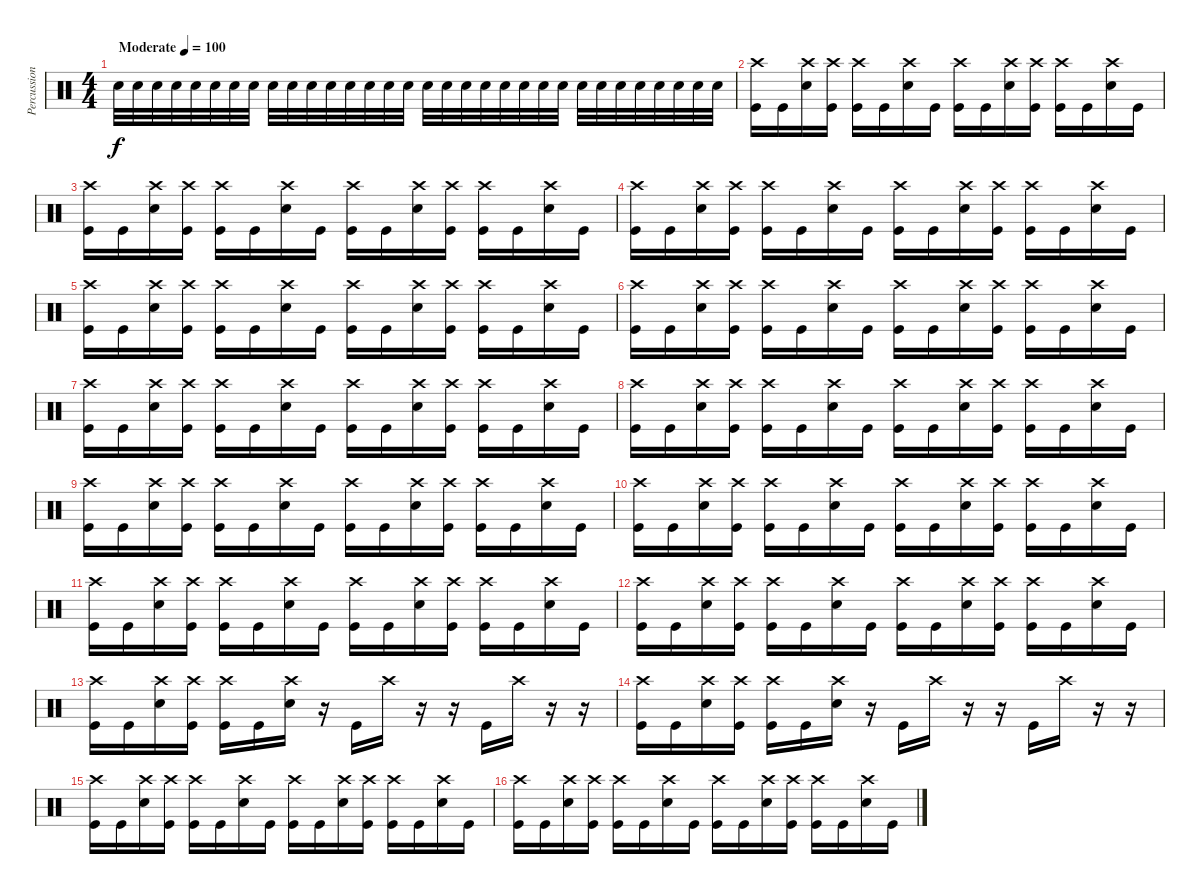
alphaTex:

\track ("Percussion" "Percussion") {instrument percussion}
\staff {score}
\articulation defaults
\ts (4 4)
\tempo (100 "Moderate")
\clef neutral
\ks c "Snare (hit) 2".32{dy f} "Snare (hit) 2".32 "Snare (hit) 2".32 "Snare (hit) 2".32 "Snare (hit) 2".32 "Snare (hit) 2".32 "Snare (hit) 2".32 "Snare (hit) 2".32 "Snare (hit) 2".32 "Snare (hit) 2".32 "Snare (hit) 2".32 "Snare (hit) 2".32 "Snare (hit) 2".32 "Snare (hit) 2".32 "Snare (hit) 2".32 "Snare (hit) 2".32 "Snare (hit) 2".32 "Snare (hit) 2".32 "Snare (hit) 2".32 "Snare (hit) 2".32 "Snare (hit) 2".32 "Snare (hit) 2".32 "Snare (hit) 2".32 "Snare (hit) 2".32 "Snare (hit) 2".32 "Snare (hit) 2".32 "Snare (hit) 2".32 "Snare (hit) 2".32 "Snare (hit) 2".32 "Snare (hit) 2".32 "Snare (hit) 2".32 "Snare (hit) 2".32
|
("Crash high (hit)" "Kick (hit)").16 "Kick (hit)".16 ("Crash high (hit)" "Snare (hit) 2").16 ("Crash high (hit)" "Kick (hit)").16 ("Crash high (hit)" "Kick (hit)").16 "Kick (hit)".16 ("Crash high (hit)" "Snare (hit) 2").16 "Kick (hit)".16 ("Crash high (hit)" "Kick (hit)").16 "Kick (hit)".16 ("Crash high (hit)" "Snare (hit) 2").16 ("Crash high (hit)" "Kick (hit)").16 ("Crash high (hit)" "Kick (hit)").16 "Kick (hit)".16 ("Crash high (hit)" "Snare (hit) 2").16 "Kick (hit)".16 |
("Crash high (hit)" "Kick (hit)").16 "Kick (hit)".16 ("Crash high (hit)" "Snare (hit) 2").16 ("Crash high (hit)" "Kick (hit)").16 ("Crash high (hit)" "Kick (hit)").16 "Kick (hit)".16 ("Crash high (hit)" "Snare (hit) 2").16 "Kick (hit)".16 ("Crash high (hit)" "Kick (hit)").16 "Kick (hit)".16 ("Crash high (hit)" "Snare (hit) 2").16 ("Crash high (hit)" "Kick (hit)").16 ("Crash high (hit)" "Kick (hit)").16 "Kick (hit)".16 ("Crash high (hit)" "Snare (hit) 2").16 "Kick (hit)".16 |
("Crash high (hit)" "Kick (hit)").16 "Kick (hit)".16 ("Crash high (hit)" "Snare (hit) 2").16 ("Crash high (hit)" "Kick (hit)").16 ("Crash high (hit)" "Kick (hit)").16 "Kick (hit)".16 ("Crash high (hit)" "Snare (hit) 2").16 "Kick (hit)".16 ("Crash high (hit)" "Kick (hit)").16 "Kick (hit)".16 ("Crash high (hit)" "Snare (hit) 2").16 ("Crash high (hit)" "Kick (hit)").16 ("Crash high (hit)" "Kick (hit)").16 "Kick (hit)".16 ("Crash high (hit)" "Snare (hit) 2").16 "Kick (hit)".16 |
("Crash high (hit)" "Kick (hit)").16 "Kick (hit)".16 ("Crash high (hit)" "Snare (hit) 2").16 ("Crash high (hit)" "Kick (hit)").16 ("Crash high (hit)" "Kick (hit)").16 "Kick (hit)".16 ("Crash high (hit)" "Snare (hit) 2").16 "Kick (hit)".16 ("Crash high (hit)" "Kick (hit)").16 "Kick (hit)".16 ("Crash high (hit)" "Snare (hit) 2").16 ("Crash high (hit)" "Kick (hit)").16 ("Crash high (hit)" "Kick (hit)").16 "Kick (hit)".16 ("Crash high (hit)" "Snare (hit) 2").16 "Kick (hit)".16 |
("Crash high (hit)" "Kick (hit)").16 "Kick (hit)".16 ("Crash high (hit)" "Snare (hit) 2").16 ("Crash high (hit)" "Kick (hit)").16 ("Crash high (hit)" "Kick (hit)").16 "Kick (hit)".16 ("Crash high (hit)" "Snare (hit) 2").16 "Kick (hit)".16 ("Crash high (hit)" "Kick (hit)").16 "Kick (hit)".16 ("Crash high (hit)" "Snare (hit) 2").16 ("Crash high (hit)" "Kick (hit)").16 ("Crash high (hit)" "Kick (hit)").16 "Kick (hit)".16 ("Crash high (hit)" "Snare (hit) 2").16 "Kick (hit)".16 |
("Crash high (hit)" "Kick (hit)").16 "Kick (hit)".16 ("Crash high (hit)" "Snare (hit) 2").16 ("Crash high (hit)" "Kick (hit)").16 ("Crash high (hit)" "Kick (hit)").16 "Kick (hit)".16 ("Crash high (hit)" "Snare (hit) 2").16 "Kick (hit)".16 ("Crash high (hit)" "Kick (hit)").16 "Kick (hit)".16 ("Crash high (hit)" "Snare (hit) 2").16 ("Crash high (hit)" "Kick (hit)").16 ("Crash high (hit)" "Kick (hit)").16 "Kick (hit)".16 ("Crash high (hit)" "Snare (hit) 2").16 "Kick (hit)".16 |
("Crash high (hit)" "Kick (hit)").16 "Kick (hit)".16 ("Crash high (hit)" "Snare (hit) 2").16 ("Crash high (hit)" "Kick (hit)").16 ("Crash high (hit)" "Kick (hit)").16 "Kick (hit)".16 ("Crash high (hit)" "Snare (hit) 2").16 "Kick (hit)".16 ("Crash high (hit)" "Kick (hit)").16 "Kick (hit)".16 ("Crash high (hit)" "Snare (hit) 2").16 ("Crash high (hit)" "Kick (hit)").16 ("Crash high (hit)" "Kick (hit)").16 "Kick (hit)".16 ("Crash high (hit)" "Snare (hit) 2").16 "Kick (hit)".16 |
("Crash high (hit)" "Kick (hit)").16 "Kick (hit)".16 ("Crash high (hit)" "Snare (hit) 2").16 ("Crash high (hit)" "Kick (hit)").16 ("Crash high (hit)" "Kick (hit)").16 "Kick (hit)".16 ("Crash high (hit)" "Snare (hit) 2").16 "Kick (hit)".16 ("Crash high (hit)" "Kick (hit)").16 "Kick (hit)".16 ("Crash high (hit)" "Snare (hit) 2").16 ("Crash high (hit)" "Kick (hit)").16 ("Crash high (hit)" "Kick (hit)").16 "Kick (hit)".16 ("Crash high (hit)" "Snare (hit) 2").16 "Kick (hit)".16 |
("Crash high (hit)" "Kick (hit)").16 "Kick (hit)".16 ("Crash high (hit)" "Snare (hit) 2").16 ("Crash high (hit)" "Kick (hit)").16 ("Crash high (hit)" "Kick (hit)").16 "Kick (hit)".16 ("Crash high (hit)" "Snare (hit) 2").16 "Kick (hit)".16 ("Crash high (hit)" "Kick (hit)").16 "Kick (hit)".16 ("Crash high (hit)" "Snare (hit) 2").16 ("Crash high (hit)" "Kick (hit)").16 ("Crash high (hit)" "Kick (hit)").16 "Kick (hit)".16 ("Crash high (hit)" "Snare (hit) 2").16 "Kick (hit)".16 |
("Crash high (hit)" "Kick (hit)").16 "Kick (hit)".16 ("Crash high (hit)" "Snare (hit) 2").16 ("Crash high (hit)" "Kick (hit)").16 ("Crash high (hit)" "Kick (hit)").16 "Kick (hit)".16 ("Crash high (hit)" "Snare (hit) 2").16 "Kick (hit)".16 ("Crash high (hit)" "Kick (hit)").16 "Kick (hit)".16 ("Crash high (hit)" "Snare (hit) 2").16 ("Crash high (hit)" "Kick (hit)").16 ("Crash high (hit)" "Kick (hit)").16 "Kick (hit)".16 ("Crash high (hit)" "Snare (hit) 2").16 "Kick (hit)".16 |
("Crash high (hit)" "Kick (hit)").16 "Kick (hit)".16 ("Crash high (hit)" "Snare (hit) 2").16 ("Crash high (hit)" "Kick (hit)").16 ("Crash high (hit)" "Kick (hit)").16 "Kick (hit)".16 ("Crash high (hit)" "Snare (hit) 2").16 "Kick (hit)".16 ("Crash high (hit)" "Kick (hit)").16 "Kick (hit)".16 ("Crash high (hit)" "Snare (hit) 2").16 ("Crash high (hit)" "Kick (hit)").16 ("Crash high (hit)" "Kick (hit)").16 "Kick (hit)".16 ("Crash high (hit)" "Snare (hit) 2").16 "Kick (hit)".16 |
("Crash high (hit)" "Kick (hit)").16 "Kick (hit)".16 ("Crash high (hit)" "Snare (hit) 2").16 ("Crash high (hit)" "Kick (hit)").16 ("Crash high (hit)" "Kick (hit)").16 "Kick (hit)".16 ("Crash high (hit)" "Snare (hit) 2").16 r.16 "Kick (hit)".16 "Crash high (hit)".16 r.16 r.16 "Kick (hit)".16 "Crash high (hit)".16 r.16 r.16 |
("Crash high (hit)" "Kick (hit)").16 "Kick (hit)".16 ("Crash high (hit)" "Snare (hit) 2").16 ("Crash high (hit)" "Kick (hit)").16 ("Crash high (hit)" "Kick (hit)").16 "Kick (hit)".16 ("Crash high (hit)" "Snare (hit) 2").16 r.16 "Kick (hit)".16 "Crash high (hit)".16 r.16 r.16 "Kick (hit)".16 "Crash high (hit)".16 r.16 r.16 |
("Crash high (hit)" "Kick (hit)").16 "Kick (hit)".16 ("Crash high (hit)" "Snare (hit) 2").16 ("Crash high (hit)" "Kick (hit)").16 ("Crash high (hit)" "Kick (hit)").16 "Kick (hit)".16 ("Crash high (hit)" "Snare (hit) 2").16 "Kick (hit)".16 ("Crash high (hit)" "Kick (hit)").16 "Kick (hit)".16 ("Crash high (hit)" "Snare (hit) 2").16 ("Crash high (hit)" "Kick (hit)").16 ("Crash high (hit)" "Kick (hit)").16 "Kick (hit)".16 ("Crash high (hit)" "Snare (hit) 2").16 "Kick (hit)".16 |
("Crash high (hit)" "Kick (hit)").16 "Kick (hit)".16 ("Crash high (hit)" "Snare (hit) 2").16 ("Crash high (hit)" "Kick (hit)").16 ("Crash high (hit)" "Kick (hit)").16 "Kick (hit)".16 ("Crash high (hit)" "Snare (hit) 2").16 "Kick (hit)".16 ("Crash high (hit)" "Kick (hit)").16 "Kick (hit)".16 ("Crash high (hit)" "Snare (hit) 2").16 ("Crash high (hit)" "Kick (hit)").16 ("Crash high (hit)" "Kick (hit)").16 "Kick (hit)".16 ("Crash high (hit)" "Snare (hit) 2").16 "Kick (hit)".16
